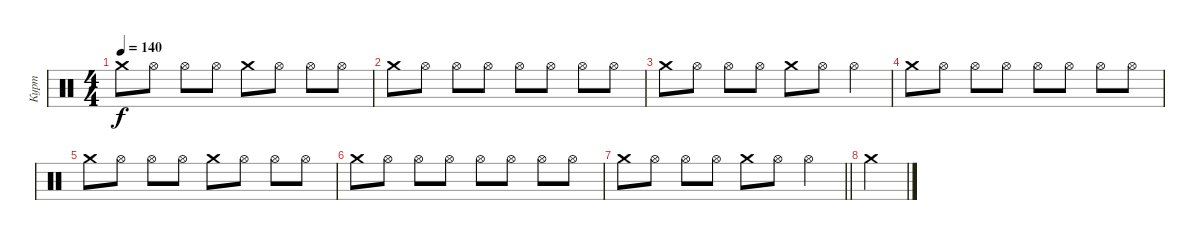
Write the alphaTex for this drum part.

\track ("Курт" "Курт") {instrument percussion}
\staff {score}
\articulation defaults
\ts (4 4)
\tempo 140
\clef neutral
\ks c "Crash medium (hit)".8{dy f} "Hi-Hat (open)".8 "Hi-Hat (open)".8 "Hi-Hat (open)".8 "Crash medium (hit)".8 "Hi-Hat (open)".8 "Hi-Hat (open)".8 "Hi-Hat (open)".8
|
"Crash medium (hit)".8 "Hi-Hat (open)".8 "Hi-Hat (open)".8 "Hi-Hat (open)".8 "Hi-Hat (open)".8 "Hi-Hat (open)".8 "Hi-Hat (open)".8 "Hi-Hat (open)".8 |
"Crash medium (hit)".8 "Hi-Hat (open)".8 "Hi-Hat (open)".8 "Hi-Hat (open)".8 "Crash medium (hit)".8 "Hi-Hat (open)".8 "Hi-Hat (open)".4 |
"Crash medium (hit)".8 "Hi-Hat (open)".8 "Hi-Hat (open)".8 "Hi-Hat (open)".8 "Hi-Hat (open)".8 "Hi-Hat (open)".8 "Hi-Hat (open)".8 "Hi-Hat (open)".8 |
"Crash medium (hit)".8 "Hi-Hat (open)".8 "Hi-Hat (open)".8 "Hi-Hat (open)".8 "Crash medium (hit)".8 "Hi-Hat (open)".8 "Hi-Hat (open)".8 "Hi-Hat (open)".8 |
"Crash medium (hit)".8 "Hi-Hat (open)".8 "Hi-Hat (open)".8 "Hi-Hat (open)".8 "Hi-Hat (open)".8 "Hi-Hat (open)".8 "Hi-Hat (open)".8 "Hi-Hat (open)".8 |
\barLineRight lightlight "Crash medium (hit)".8 "Hi-Hat (open)".8 "Hi-Hat (open)".8 "Hi-Hat (open)".8 "Crash medium (hit)".8 "Hi-Hat (open)".8 "Hi-Hat (open)".4
|
"Crash medium (hit)".4
